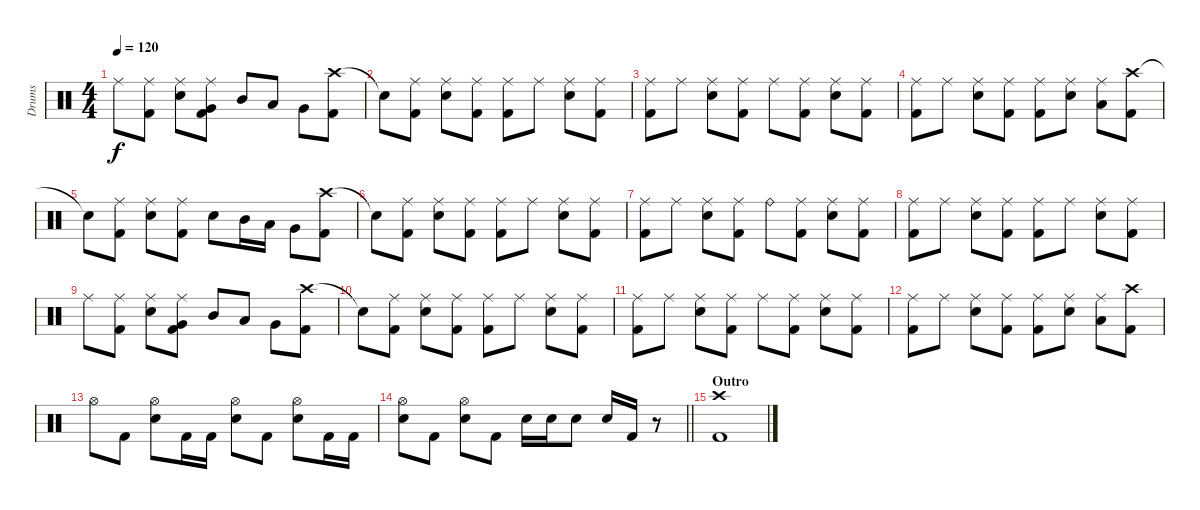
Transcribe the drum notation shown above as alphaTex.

\track ("Drums" "Drums") {instrument percussion}
\staff {score}
\articulation defaults
\ts (4 4)
\tempo 120
\clef neutral
\ks c "Ride (middle)".8{dy f}
("Ride (middle)" "Kick (hit) 2").8 ("Ride (middle)" "Snare (hit) 2").8 ("Ride (middle)" "Very Low Tom (hit)" "Kick (hit) 2").8 "Mid Tom (hit)".8 "Low Tom (hit)".8 "Very Low Tom (hit)".8 ("Crash high (hit)" "Kick (hit) 2").8 |
"Snare (hit)"{t}.8 ("Ride (middle)" "Kick (hit) 2").8 ("Ride (middle)" "Snare (hit) 2").8 ("Ride (middle)" "Kick (hit) 2").8 ("Ride (middle)" "Kick (hit) 2").8 "Ride (middle)".8 ("Ride (middle)" "Snare (hit) 2").8 ("Ride (middle)" "Kick (hit) 2").8 |
("Ride (middle)" "Kick (hit) 2").8 "Ride (middle)".8 ("Ride (middle)" "Snare (hit) 2").8 ("Ride (middle)" "Kick (hit) 2").8 "Ride (middle)".8 ("Ride (middle)" "Kick (hit) 2").8 ("Ride (middle)" "Snare (hit) 2").8 ("Ride (middle)" "Kick (hit) 2").8 |
("Ride (middle)" "Kick (hit) 2").8 "Ride (middle)".8 ("Ride (middle)" "Snare (hit) 2").8 ("Ride (middle)" "Kick (hit) 2").8 ("Ride (middle)" "Kick (hit) 2").8 ("Ride (middle)" "Snare (hit) 2").8 ("Ride (middle)" "Low Tom (hit)").8 ("Crash high (hit)" "Kick (hit) 2").8 |
"Snare (hit)"{t}.8 ("Ride (middle)" "Kick (hit) 2").8 ("Ride (middle)" "Snare (hit) 2").8 ("Ride (middle)" "Kick (hit) 2").8 "Snare (hit) 2".8 "Mid Tom (hit)".16 "Low Tom (hit)".16 "Very Low Tom (hit)".8 ("Crash high (hit)" "Kick (hit) 2").8 |
"Snare (hit)"{t}.8 ("Ride (middle)" "Kick (hit) 2").8 ("Ride (middle)" "Snare (hit) 2").8 ("Ride (middle)" "Kick (hit) 2").8 ("Ride (middle)" "Kick (hit) 2").8 "Ride (middle)".8 ("Ride (middle)" "Snare (hit) 2").8 ("Ride (middle)" "Kick (hit) 2").8 |
("Ride (middle)" "Kick (hit) 2").8 "Ride (middle)".8 ("Ride (middle)" "Snare (hit) 2").8 ("Ride (middle)" "Kick (hit) 2").8 "Ride (bell)".8 ("Ride (middle)" "Kick (hit) 2").8 ("Ride (middle)" "Snare (hit) 2").8 ("Ride (middle)" "Kick (hit) 2").8 |
("Ride (middle)" "Kick (hit) 2").8 "Ride (middle)".8 ("Ride (middle)" "Snare (hit) 2").8 ("Ride (middle)" "Kick (hit) 2").8 ("Ride (middle)" "Kick (hit) 2").8 "Ride (middle)".8 ("Ride (middle)" "Snare (hit) 2").8 ("Ride (middle)" "Kick (hit) 2").8 |
"Ride (middle)".8 ("Ride (middle)" "Kick (hit) 2").8 ("Ride (middle)" "Snare (hit) 2").8 ("Ride (middle)" "Very Low Tom (hit)" "Kick (hit) 2").8 "Mid Tom (hit)".8 "Low Tom (hit)".8 "Very Low Tom (hit)".8 ("Crash high (hit)" "Kick (hit) 2").8 |
"Snare (hit)"{t}.8 ("Ride (middle)" "Kick (hit) 2").8 ("Ride (middle)" "Snare (hit) 2").8 ("Ride (middle)" "Kick (hit) 2").8 ("Ride (middle)" "Kick (hit) 2").8 "Ride (middle)".8 ("Ride (middle)" "Snare (hit) 2").8 ("Ride (middle)" "Kick (hit) 2").8 |
("Ride (middle)" "Kick (hit) 2").8 "Ride (middle)".8 ("Ride (middle)" "Snare (hit) 2").8 ("Ride (middle)" "Kick (hit) 2").8 "Ride (middle)".8 ("Ride (middle)" "Kick (hit) 2").8 ("Ride (middle)" "Snare (hit) 2").8 ("Ride (middle)" "Kick (hit) 2").8 |
("Ride (middle)" "Kick (hit) 2").8 "Ride (middle)".8 ("Ride (middle)" "Snare (hit) 2").8 ("Ride (middle)" "Kick (hit) 2").8 ("Ride (middle)" "Kick (hit) 2").8 ("Ride (middle)" "Snare (hit) 2").8 ("Ride (middle)" "Low Tom (hit)").8 ("Crash high (hit)" "Kick (hit) 2").8 |
"Hi-Hat (open)".8 "Kick (hit) 2".8 ("Hi-Hat (open)" "Snare (hit) 2").8 "Kick (hit) 2".16 "Kick (hit) 2".16 ("Hi-Hat (open)" "Snare (hit) 2").8 "Kick (hit) 2".8 ("Hi-Hat (open)" "Snare (hit) 2").8 "Kick (hit) 2".16 "Kick (hit) 2".16 |
\barLineRight lightlight
("Hi-Hat (open)" "Snare (hit) 2").8 "Kick (hit) 2".8 ("Hi-Hat (open)" "Snare (hit) 2").8 "Kick (hit) 2".8 "Snare (hit) 2".16 "Snare (hit) 2".16 "Snare (hit) 2".8 "Snare (hit) 2".16 "Kick (hit) 2".16 r.8 |
\section ("" "Outro")
("Crash high (hit)" "Kick (hit) 2").1
